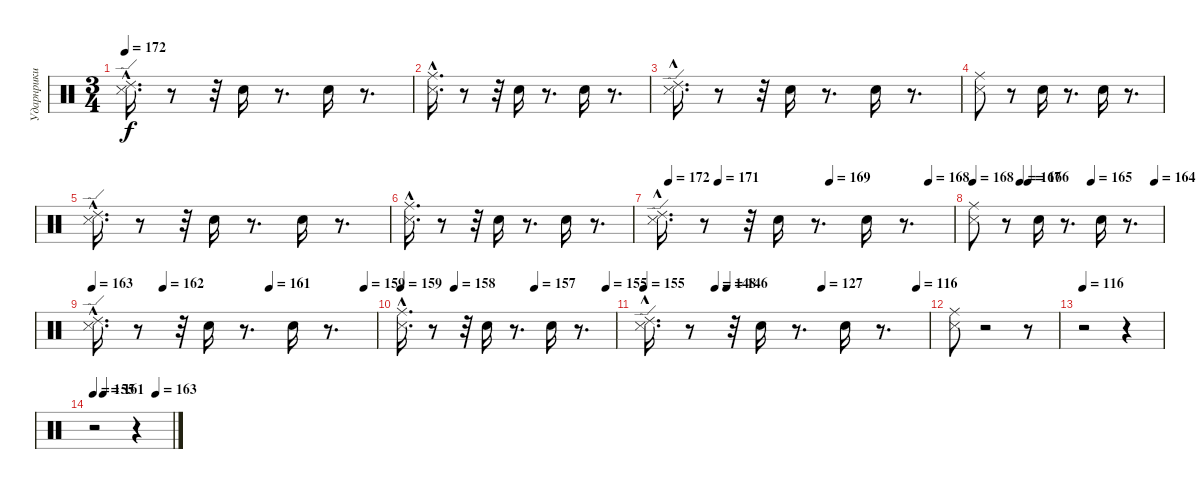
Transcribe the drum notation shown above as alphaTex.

\track ("Ударнрики" "Ударнрики") {instrument percussion}
\staff {score}
\articulation defaults
\ts (3 4)
\tempo 172
\clef neutral
\ks c
("Ride (edge) 2"{hac} "Metronome (hit)"{hac}).16{d dy f} r.8 r.32 "Electric Snare (hit)".16 r.8{d} "Electric Snare (hit)".16 r.8{d} |
("Ride (middle)" "Metronome (hit)"{hac}).16{d} r.8 r.32 "Electric Snare (hit)".16 r.8{d} "Electric Snare (hit)".16 r.8{d} |
("Ride (edge) 2" "Metronome (hit)"{hac}).16{d} r.8 r.32 "Electric Snare (hit)".16 r.8{d} "Electric Snare (hit)".16 r.8{d} |
("Ride (middle)" "Metronome (hit)").8 r.8 "Electric Snare (hit)".16 r.8{d} "Electric Snare (hit)".16 r.8{d} |
("Ride (edge) 2"{hac} "Metronome (hit)"{hac}).16{d} r.8 r.32 "Electric Snare (hit)".16 r.8{d} "Electric Snare (hit)".16 r.8{d} |
("Ride (middle)" "Metronome (hit)"{hac}).16{d} r.8 r.32 "Electric Snare (hit)".16 r.8{d} "Electric Snare (hit)".16 r.8{d} |
\tempo (172 0.041666666666666664)
\tempo (171 0.20833333333333334)
\tempo (169 0.5833333333333334)
\tempo (168 0.9166666666666666)
("Ride (edge) 2" "Metronome (hit)"{hac}).16{d} r.8 r.32 "Electric Snare (hit)".16 r.8{d} "Electric Snare (hit)".16 r.8{d} |
\tempo 168
\tempo (167 0.25)
\tempo (166 0.2916666666666667)
\tempo (165 0.625)
\tempo (164 0.9583333333333334)
("Ride (middle)" "Metronome (hit)").8 r.8 "Electric Snare (hit)".16 r.8{d} "Electric Snare (hit)".16 r.8{d} |
\tempo 163
\tempo (162 0.25)
\tempo (161 0.625)
\tempo (159 0.9583333333333334)
("Ride (edge) 2"{hac} "Metronome (hit)"{hac}).16{d} r.8 r.32 "Electric Snare (hit)".16 r.8{d} "Electric Snare (hit)".16 r.8{d} |
\tempo 159
\tempo (158 0.25)
\tempo (157 0.625)
\tempo (155 0.9583333333333334)
("Ride (middle)" "Metronome (hit)"{hac}).16{d} r.8 r.32 "Electric Snare (hit)".16 r.8{d} "Electric Snare (hit)".16 r.8{d} |
\tempo 155
\tempo (148 0.25)
\tempo (146 0.2916666666666667)
\tempo (127 0.625)
\tempo (116 0.9583333333333334)
("Ride (edge) 2" "Metronome (hit)"{hac}).16{d} r.8 r.32 "Electric Snare (hit)".16 r.8{d} "Electric Snare (hit)".16 r.8{d} |
("Ride (middle)" "Metronome (hit)").8 r.2 r.8 |
\tempo 116
r.2 r.4 |
\tempo 155
\tempo (161 0.125)
\tempo (163 0.7916666666666666)
r.2 r.4
